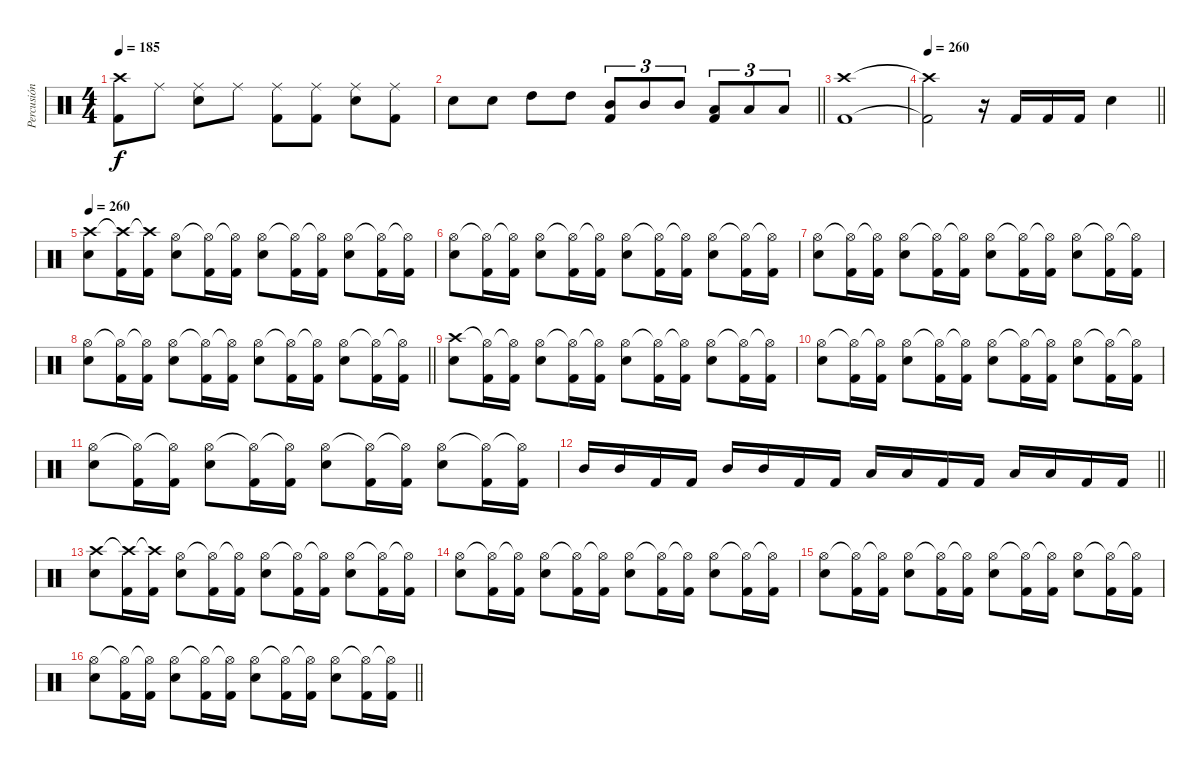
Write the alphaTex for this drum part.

\track ("Percusión" "Percusión") {instrument percussion}
\staff {score}
\articulation defaults
\ts (4 4)
\tempo 185
\clef neutral
\ks c
("Kick (hit) 2" "Crash high (hit)").8{dy f} "Ride (middle)".8 ("Snare (hit) 2" "Ride (middle)").8 "Ride (middle)".8 ("Kick (hit) 2" "Ride (middle)").8 ("Kick (hit) 2" "Ride (middle)").8 ("Snare (hit) 2" "Ride (middle)").8 ("Kick (hit) 2" "Ride (middle)").8 |
\barLineRight lightlight "Snare (hit) 2".8 "Snare (hit) 2".8 "High Tom (hit)".8 "High Tom (hit)".8
("Kick (hit) 2" "Mid Tom (hit)").8{tu (3 2)} "Mid Tom (hit)".8{tu (3 2)} "Mid Tom (hit)".8{tu (3 2)} ("Kick (hit) 2" "Low Tom (hit)").8{tu (3 2)} "Low Tom (hit)".8{tu (3 2)} "Low Tom (hit)".8{tu (3 2)} |
("Kick (hit) 2" "Crash high (hit)").1 |
\tempo 260
\barLineRight lightlight
("Kick (hit) 2"{t} "Crash high (hit)"{t}).2 r.16 "Kick (hit) 2".16 "Kick (hit) 2".16 "Kick (hit) 2".16 "Snare (hit) 2".4 |
\tempo 260
("Snare (hit) 2" "Crash high (hit)").8 ("Kick (hit) 2" "Crash high (hit)"{t}).16 ("Kick (hit) 2" "Crash high (hit)"{t}).16 ("Snare (hit) 2" "Hi-Hat (open)").8 ("Kick (hit) 2" "Hi-Hat (open)"{t}).16 ("Kick (hit) 2" "Hi-Hat (open)"{t}).16 ("Snare (hit) 2" "Hi-Hat (open)").8 ("Kick (hit) 2" "Hi-Hat (open)"{t}).16 ("Kick (hit) 2" "Hi-Hat (open)"{t}).16 ("Snare (hit) 2" "Hi-Hat (open)").8 ("Kick (hit) 2" "Hi-Hat (open)"{t}).16 ("Kick (hit) 2" "Hi-Hat (open)"{t}).16 |
("Snare (hit) 2" "Hi-Hat (open)").8 ("Kick (hit) 2" "Hi-Hat (open)"{t}).16 ("Kick (hit) 2" "Hi-Hat (open)"{t}).16 ("Snare (hit) 2" "Hi-Hat (open)").8 ("Kick (hit) 2" "Hi-Hat (open)"{t}).16 ("Kick (hit) 2" "Hi-Hat (open)"{t}).16 ("Snare (hit) 2" "Hi-Hat (open)").8 ("Kick (hit) 2" "Hi-Hat (open)"{t}).16 ("Kick (hit) 2" "Hi-Hat (open)"{t}).16 ("Snare (hit) 2" "Hi-Hat (open)").8 ("Kick (hit) 2" "Hi-Hat (open)"{t}).16 ("Kick (hit) 2" "Hi-Hat (open)"{t}).16 |
("Snare (hit) 2" "Hi-Hat (open)").8 ("Kick (hit) 2" "Hi-Hat (open)"{t}).16 ("Kick (hit) 2" "Hi-Hat (open)"{t}).16 ("Snare (hit) 2" "Hi-Hat (open)").8 ("Kick (hit) 2" "Hi-Hat (open)"{t}).16 ("Kick (hit) 2" "Hi-Hat (open)"{t}).16 ("Snare (hit) 2" "Hi-Hat (open)").8 ("Kick (hit) 2" "Hi-Hat (open)"{t}).16 ("Kick (hit) 2" "Hi-Hat (open)"{t}).16 ("Snare (hit) 2" "Hi-Hat (open)").8 ("Kick (hit) 2" "Hi-Hat (open)"{t}).16 ("Kick (hit) 2" "Hi-Hat (open)"{t}).16 |
\barLineRight lightlight
("Snare (hit) 2" "Hi-Hat (open)").8 ("Kick (hit) 2" "Hi-Hat (open)"{t}).16 ("Kick (hit) 2" "Hi-Hat (open)"{t}).16 ("Snare (hit) 2" "Hi-Hat (open)").8 ("Kick (hit) 2" "Hi-Hat (open)"{t}).16 ("Kick (hit) 2" "Hi-Hat (open)"{t}).16 ("Snare (hit) 2" "Hi-Hat (open)").8 ("Kick (hit) 2" "Hi-Hat (open)"{t}).16 ("Kick (hit) 2" "Hi-Hat (open)"{t}).16 ("Snare (hit) 2" "Hi-Hat (open)").8 ("Kick (hit) 2" "Hi-Hat (open)"{t}).16 ("Kick (hit) 2" "Hi-Hat (open)"{t}).16 |
("Snare (hit) 2" "Crash high (hit)").8 ("Kick (hit) 2" "Hi-Hat (open)"{t}).16 ("Kick (hit) 2" "Hi-Hat (open)"{t}).16 ("Snare (hit) 2" "Hi-Hat (open)").8 ("Kick (hit) 2" "Hi-Hat (open)"{t}).16 ("Kick (hit) 2" "Hi-Hat (open)"{t}).16 ("Snare (hit) 2" "Hi-Hat (open)").8 ("Kick (hit) 2" "Hi-Hat (open)"{t}).16 ("Kick (hit) 2" "Hi-Hat (open)"{t}).16 ("Snare (hit) 2" "Hi-Hat (open)").8 ("Kick (hit) 2" "Hi-Hat (open)"{t}).16 ("Kick (hit) 2" "Hi-Hat (open)"{t}).16 |
("Snare (hit) 2" "Hi-Hat (open)").8 ("Kick (hit) 2" "Hi-Hat (open)"{t}).16 ("Kick (hit) 2" "Hi-Hat (open)"{t}).16 ("Snare (hit) 2" "Hi-Hat (open)").8 ("Kick (hit) 2" "Hi-Hat (open)"{t}).16 ("Kick (hit) 2" "Hi-Hat (open)"{t}).16 ("Snare (hit) 2" "Hi-Hat (open)").8 ("Kick (hit) 2" "Hi-Hat (open)"{t}).16 ("Kick (hit) 2" "Hi-Hat (open)"{t}).16 ("Snare (hit) 2" "Hi-Hat (open)").8 ("Kick (hit) 2" "Hi-Hat (open)"{t}).16 ("Kick (hit) 2" "Hi-Hat (open)"{t}).16 |
("Snare (hit) 2" "Hi-Hat (open)").8 ("Kick (hit) 2" "Hi-Hat (open)"{t}).16 ("Kick (hit) 2" "Hi-Hat (open)"{t}).16 ("Snare (hit) 2" "Hi-Hat (open)").8 ("Kick (hit) 2" "Hi-Hat (open)"{t}).16 ("Kick (hit) 2" "Hi-Hat (open)"{t}).16 ("Snare (hit) 2" "Hi-Hat (open)").8 ("Kick (hit) 2" "Hi-Hat (open)"{t}).16 ("Kick (hit) 2" "Hi-Hat (open)"{t}).16 ("Snare (hit) 2" "Hi-Hat (open)").8 ("Kick (hit) 2" "Hi-Hat (open)"{t}).16 ("Kick (hit) 2" "Hi-Hat (open)"{t}).16 |
\barLineRight lightlight "Mid Tom (hit)".16 "Mid Tom (hit)".16 "Kick (hit) 2".16 "Kick (hit) 2".16 "Mid Tom (hit)".16 "Mid Tom (hit)".16 "Kick (hit) 2".16 "Kick (hit) 2".16 "Low Tom (hit)".16 "Low Tom (hit)".16 "Kick (hit) 2".16 "Kick (hit) 2".16 "Low Tom (hit)".16 "Low Tom (hit)".16 "Kick (hit) 2".16 "Kick (hit) 2".16
|
("Snare (hit) 2" "Crash high (hit)").8 ("Kick (hit) 2" "Crash high (hit)"{t}).16 ("Kick (hit) 2" "Crash high (hit)"{t}).16 ("Snare (hit) 2" "Hi-Hat (open)").8 ("Kick (hit) 2" "Hi-Hat (open)"{t}).16 ("Kick (hit) 2" "Hi-Hat (open)"{t}).16 ("Snare (hit) 2" "Hi-Hat (open)").8 ("Kick (hit) 2" "Hi-Hat (open)"{t}).16 ("Kick (hit) 2" "Hi-Hat (open)"{t}).16 ("Snare (hit) 2" "Hi-Hat (open)").8 ("Kick (hit) 2" "Hi-Hat (open)"{t}).16 ("Kick (hit) 2" "Hi-Hat (open)"{t}).16 |
("Snare (hit) 2" "Hi-Hat (open)").8 ("Kick (hit) 2" "Hi-Hat (open)"{t}).16 ("Kick (hit) 2" "Hi-Hat (open)"{t}).16 ("Snare (hit) 2" "Hi-Hat (open)").8 ("Kick (hit) 2" "Hi-Hat (open)"{t}).16 ("Kick (hit) 2" "Hi-Hat (open)"{t}).16 ("Snare (hit) 2" "Hi-Hat (open)").8 ("Kick (hit) 2" "Hi-Hat (open)"{t}).16 ("Kick (hit) 2" "Hi-Hat (open)"{t}).16 ("Snare (hit) 2" "Hi-Hat (open)").8 ("Kick (hit) 2" "Hi-Hat (open)"{t}).16 ("Kick (hit) 2" "Hi-Hat (open)"{t}).16 |
("Snare (hit) 2" "Hi-Hat (open)").8 ("Kick (hit) 2" "Hi-Hat (open)"{t}).16 ("Kick (hit) 2" "Hi-Hat (open)"{t}).16 ("Snare (hit) 2" "Hi-Hat (open)").8 ("Kick (hit) 2" "Hi-Hat (open)"{t}).16 ("Kick (hit) 2" "Hi-Hat (open)"{t}).16 ("Snare (hit) 2" "Hi-Hat (open)").8 ("Kick (hit) 2" "Hi-Hat (open)"{t}).16 ("Kick (hit) 2" "Hi-Hat (open)"{t}).16 ("Snare (hit) 2" "Hi-Hat (open)").8 ("Kick (hit) 2" "Hi-Hat (open)"{t}).16 ("Kick (hit) 2" "Hi-Hat (open)"{t}).16 |
\barLineRight lightlight
("Snare (hit) 2" "Hi-Hat (open)").8 ("Kick (hit) 2" "Hi-Hat (open)"{t}).16 ("Kick (hit) 2" "Hi-Hat (open)"{t}).16 ("Snare (hit) 2" "Hi-Hat (open)").8 ("Kick (hit) 2" "Hi-Hat (open)"{t}).16 ("Kick (hit) 2" "Hi-Hat (open)"{t}).16 ("Snare (hit) 2" "Hi-Hat (open)").8 ("Kick (hit) 2" "Hi-Hat (open)"{t}).16 ("Kick (hit) 2" "Hi-Hat (open)"{t}).16 ("Snare (hit) 2" "Hi-Hat (open)").8 ("Kick (hit) 2" "Hi-Hat (open)"{t}).16 ("Kick (hit) 2" "Hi-Hat (open)"{t}).16
